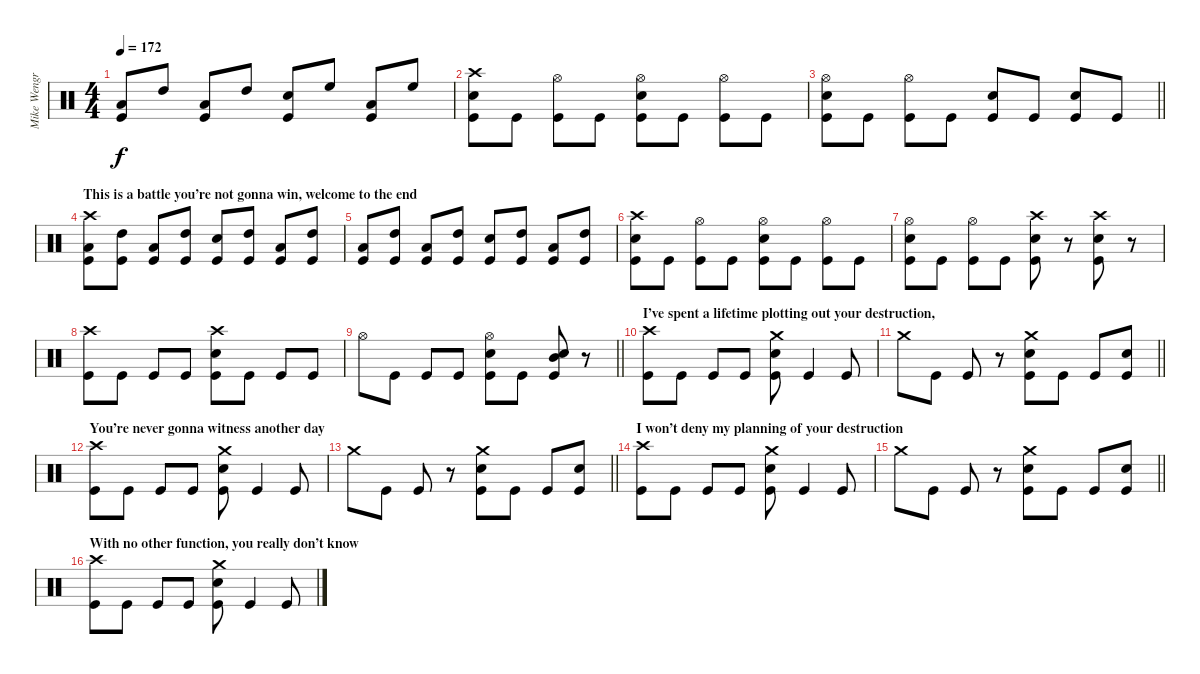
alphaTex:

\track ("Mike Wengren - Drums" "Mike Wengr") {instrument percussion}
\staff {score}
\articulation defaults
\ts (4 4)
\tempo 172
\clef neutral
\ks c
("Low Tom (hit)" "Kick (hit)").8{dy f} "High Tom (hit)".8 ("Low Tom (hit)" "Kick (hit)").8 "High Tom (hit)".8 ("Snare (hit) 2" "Kick (hit)").8 "High Floor Tom (hit)".8 ("Low Tom (hit)" "Kick (hit)").8 "High Floor Tom (hit)".8 |
("Crash high (hit)" "Snare (hit) 2" "Kick (hit)").8 "Kick (hit)".8 ("Hi-Hat (open)" "Kick (hit)").8 "Kick (hit)".8 ("Hi-Hat (open)" "Snare (hit) 2" "Kick (hit)").8 "Kick (hit)".8 ("Hi-Hat (open)" "Kick (hit)").8 "Kick (hit)".8 |
\barLineRight lightlight
("Hi-Hat (open)" "Snare (hit) 2" "Kick (hit)").8 "Kick (hit)".8 ("Hi-Hat (open)" "Kick (hit)").8 "Kick (hit)".8 ("Snare (hit) 2" "Kick (hit)").8 "Kick (hit)".8 ("Snare (hit) 2" "Kick (hit)").8 "Kick (hit)".8 |
\section ("" "This is a battle you’re not gonna win, welcome to the end")
("Crash high (hit)" "Low Tom (hit)" "Kick (hit)").8 ("High Tom (hit)" "Kick (hit)").8 ("Low Tom (hit)" "Kick (hit)").8 ("High Tom (hit)" "Kick (hit)").8 ("Snare (hit) 2" "Kick (hit)").8 ("High Tom (hit)" "Kick (hit)").8 ("Low Tom (hit)" "Kick (hit)").8 ("High Tom (hit)" "Kick (hit)").8 |
("Low Tom (hit)" "Kick (hit)").8 ("High Tom (hit)" "Kick (hit)").8 ("Low Tom (hit)" "Kick (hit)").8 ("High Tom (hit)" "Kick (hit)").8 ("Snare (hit) 2" "Kick (hit)").8 ("High Tom (hit)" "Kick (hit)").8 ("Low Tom (hit)" "Kick (hit)").8 ("High Tom (hit)" "Kick (hit)").8 |
("Crash high (hit)" "Snare (hit) 2" "Kick (hit)").8 "Kick (hit)".8 ("Hi-Hat (open)" "Kick (hit)").8 "Kick (hit)".8 ("Hi-Hat (open)" "Snare (hit) 2" "Kick (hit)").8 "Kick (hit)".8 ("Hi-Hat (open)" "Kick (hit)").8 "Kick (hit)".8 |
("Hi-Hat (open)" "Snare (hit) 2" "Kick (hit)").8 "Kick (hit)".8 ("Hi-Hat (open)" "Kick (hit)").8 "Kick (hit)".8 ("Crash high (hit)" "Snare (hit) 2" "Kick (hit)").8 r.8 ("Crash high (hit)" "Snare (hit) 2" "Kick (hit)").8 r.8 |
("Crash high (hit)" "Kick (hit)").8 "Kick (hit)".8 "Kick (hit)".8 "Kick (hit)".8 ("Crash high (hit)" "Snare (hit) 2" "Kick (hit)").8 "Kick (hit)".8 "Kick (hit)".8 "Kick (hit)".8 |
\barLineRight lightlight "Hi-Hat (open)".8 "Kick (hit)".8 "Kick (hit)".8 "Kick (hit)".8
("Hi-Hat (open)" "Snare (hit) 2" "Kick (hit)").8 "Kick (hit)".8 ("Snare (hit) 2" "Mid Tom (hit)" "Kick (hit)").8 r.8 |
\section ("" "I’ve spent a lifetime plotting out your destruction,")
("Crash high (hit)" "Kick (hit)").8 "Kick (hit)".8 "Kick (hit)".8 "Kick (hit)".8 ("Crash medium (hit)" "Snare (hit) 2" "Kick (hit)").8 "Kick (hit)".4 "Kick (hit)".8 |
\barLineRight lightlight "Crash medium (hit)".8 "Kick (hit)".8 "Kick (hit)".8
r.8 ("Crash medium (hit)" "Snare (hit) 2" "Kick (hit)").8 "Kick (hit)".8 "Kick (hit)".8 ("Snare (hit) 2" "Kick (hit)").8 |
\section ("" "You’re never gonna witness another day")
("Crash high (hit)" "Kick (hit)").8 "Kick (hit)".8 "Kick (hit)".8 "Kick (hit)".8 ("Crash medium (hit)" "Snare (hit) 2" "Kick (hit)").8 "Kick (hit)".4 "Kick (hit)".8 |
\barLineRight lightlight "Crash medium (hit)".8 "Kick (hit)".8 "Kick (hit)".8
r.8 ("Crash medium (hit)" "Snare (hit) 2" "Kick (hit)").8 "Kick (hit)".8 "Kick (hit)".8 ("Snare (hit) 2" "Kick (hit)").8 |
\section ("" "I won’t deny my planning of your destruction")
("Crash high (hit)" "Kick (hit)").8 "Kick (hit)".8 "Kick (hit)".8 "Kick (hit)".8 ("Crash medium (hit)" "Snare (hit) 2" "Kick (hit)").8 "Kick (hit)".4 "Kick (hit)".8 |
\barLineRight lightlight "Crash medium (hit)".8 "Kick (hit)".8 "Kick (hit)".8
r.8 ("Crash medium (hit)" "Snare (hit) 2" "Kick (hit)").8 "Kick (hit)".8 "Kick (hit)".8 ("Snare (hit) 2" "Kick (hit)").8 |
\section ("" "With no other function, you really don’t know")
("Crash high (hit)" "Kick (hit)").8 "Kick (hit)".8 "Kick (hit)".8 "Kick (hit)".8 ("Crash medium (hit)" "Snare (hit) 2" "Kick (hit)").8 "Kick (hit)".4 "Kick (hit)".8
